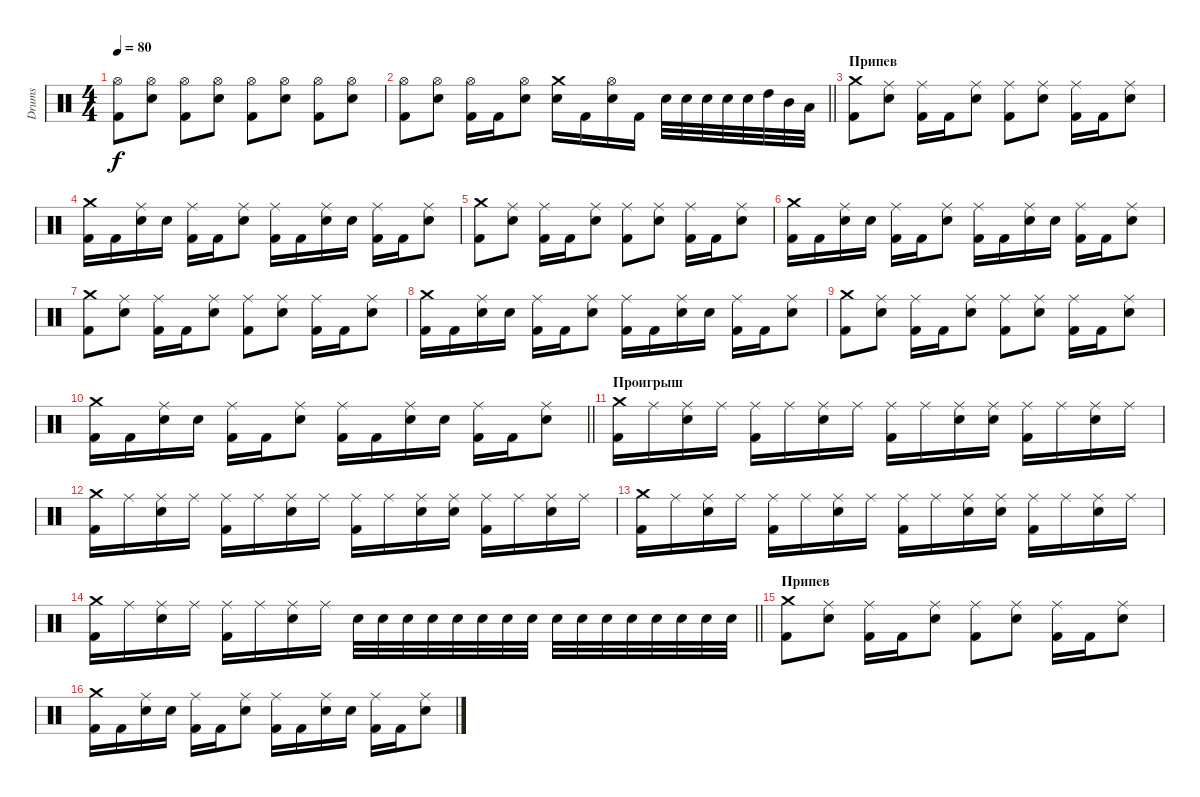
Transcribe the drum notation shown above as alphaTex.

\track ("Drums" "Drums") {instrument percussion}
\staff {score}
\articulation defaults
\ts (4 4)
\tempo 80
\clef neutral
\ks c
("Hi-Hat (open)" "Kick (hit) 2").8{dy f} ("Hi-Hat (open)" "Snare (hit) 2").8 ("Hi-Hat (open)" "Kick (hit) 2").8 ("Hi-Hat (open)" "Snare (hit) 2").8 ("Hi-Hat (open)" "Kick (hit) 2").8 ("Hi-Hat (open)" "Snare (hit) 2").8 ("Hi-Hat (open)" "Kick (hit) 2").8 ("Hi-Hat (open)" "Snare (hit) 2").8 |
\barLineRight lightlight
("Hi-Hat (open)" "Kick (hit) 2").8 ("Hi-Hat (open)" "Snare (hit) 2").8 ("Hi-Hat (open)" "Kick (hit) 2").16 "Kick (hit) 2".16 ("Hi-Hat (open)" "Snare (hit) 2").8 ("Crash medium (hit)" "Snare (hit) 2").16 "Kick (hit) 2".16 ("Hi-Hat (open)" "Snare (hit) 2").16 "Kick (hit) 2".16 "Snare (hit) 2".32 "Snare (hit) 2".32 "Snare (hit) 2".32 "Snare (hit) 2".32 "Snare (hit) 2".32 "High Tom (hit)".32 "Mid Tom (hit)".32 "Low Tom (hit)".32 |
\section ("" "Припев")
("Crash medium (hit)" "Kick (hit) 2").8 ("Ride (middle)" "Snare (hit) 2").8 ("Ride (middle)" "Kick (hit) 2").16 "Kick (hit) 2".16 ("Ride (middle)" "Snare (hit) 2").8 ("Ride (middle)" "Kick (hit) 2").8 ("Ride (middle)" "Snare (hit) 2").8 ("Ride (middle)" "Kick (hit) 2").16 "Kick (hit) 2".16 ("Ride (middle)" "Snare (hit) 2").8 |
("Crash medium (hit)" "Kick (hit) 2").16 "Kick (hit) 2".16 ("Ride (middle)" "Snare (hit) 2").16 "Snare (hit) 2".16 ("Ride (middle)" "Kick (hit) 2").16 "Kick (hit) 2".16 ("Ride (middle)" "Snare (hit) 2").8 ("Ride (middle)" "Kick (hit) 2").16 "Kick (hit) 2".16 ("Ride (middle)" "Snare (hit) 2").16 "Snare (hit) 2".16 ("Ride (middle)" "Kick (hit) 2").16 "Kick (hit) 2".16 ("Ride (middle)" "Snare (hit) 2").8 |
("Crash medium (hit)" "Kick (hit) 2").8 ("Ride (middle)" "Snare (hit) 2").8 ("Ride (middle)" "Kick (hit) 2").16 "Kick (hit) 2".16 ("Ride (middle)" "Snare (hit) 2").8 ("Ride (middle)" "Kick (hit) 2").8 ("Ride (middle)" "Snare (hit) 2").8 ("Ride (middle)" "Kick (hit) 2").16 "Kick (hit) 2".16 ("Ride (middle)" "Snare (hit) 2").8 |
("Crash medium (hit)" "Kick (hit) 2").16 "Kick (hit) 2".16 ("Ride (middle)" "Snare (hit) 2").16 "Snare (hit) 2".16 ("Ride (middle)" "Kick (hit) 2").16 "Kick (hit) 2".16 ("Ride (middle)" "Snare (hit) 2").8 ("Ride (middle)" "Kick (hit) 2").16 "Kick (hit) 2".16 ("Ride (middle)" "Snare (hit) 2").16 "Snare (hit) 2".16 ("Ride (middle)" "Kick (hit) 2").16 "Kick (hit) 2".16 ("Ride (middle)" "Snare (hit) 2").8 |
("Crash medium (hit)" "Kick (hit) 2").8 ("Ride (middle)" "Snare (hit) 2").8 ("Ride (middle)" "Kick (hit) 2").16 "Kick (hit) 2".16 ("Ride (middle)" "Snare (hit) 2").8 ("Ride (middle)" "Kick (hit) 2").8 ("Ride (middle)" "Snare (hit) 2").8 ("Ride (middle)" "Kick (hit) 2").16 "Kick (hit) 2".16 ("Ride (middle)" "Snare (hit) 2").8 |
("Crash medium (hit)" "Kick (hit) 2").16 "Kick (hit) 2".16 ("Ride (middle)" "Snare (hit) 2").16 "Snare (hit) 2".16 ("Ride (middle)" "Kick (hit) 2").16 "Kick (hit) 2".16 ("Ride (middle)" "Snare (hit) 2").8 ("Ride (middle)" "Kick (hit) 2").16 "Kick (hit) 2".16 ("Ride (middle)" "Snare (hit) 2").16 "Snare (hit) 2".16 ("Ride (middle)" "Kick (hit) 2").16 "Kick (hit) 2".16 ("Ride (middle)" "Snare (hit) 2").8 |
("Crash medium (hit)" "Kick (hit) 2").8 ("Ride (middle)" "Snare (hit) 2").8 ("Ride (middle)" "Kick (hit) 2").16 "Kick (hit) 2".16 ("Ride (middle)" "Snare (hit) 2").8 ("Ride (middle)" "Kick (hit) 2").8 ("Ride (middle)" "Snare (hit) 2").8 ("Ride (middle)" "Kick (hit) 2").16 "Kick (hit) 2".16 ("Ride (middle)" "Snare (hit) 2").8 |
\barLineRight lightlight
("Crash medium (hit)" "Kick (hit) 2").16 "Kick (hit) 2".16 ("Ride (middle)" "Snare (hit) 2").16 "Snare (hit) 2".16 ("Ride (middle)" "Kick (hit) 2").16 "Kick (hit) 2".16 ("Ride (middle)" "Snare (hit) 2").8 ("Ride (middle)" "Kick (hit) 2").16 "Kick (hit) 2".16 ("Ride (middle)" "Snare (hit) 2").16 "Snare (hit) 2".16 ("Ride (middle)" "Kick (hit) 2").16 "Kick (hit) 2".16 ("Ride (middle)" "Snare (hit) 2").8 |
\section ("" "Проигрыш")
("Crash medium (hit)" "Kick (hit) 2").16 "Ride (middle)".16 ("Ride (middle)" "Snare (hit) 2").16 "Ride (middle)".16 ("Ride (middle)" "Kick (hit) 2").16 "Ride (middle)".16 ("Ride (middle)" "Snare (hit) 2").16 "Ride (middle)".16 ("Ride (middle)" "Kick (hit) 2").16 "Ride (middle)".16 ("Ride (middle)" "Snare (hit) 2").16 ("Ride (middle)" "Snare (hit) 2").16 ("Ride (middle)" "Kick (hit) 2").16 "Ride (middle)".16 ("Ride (middle)" "Snare (hit) 2").16 "Ride (middle)".16 |
("Crash medium (hit)" "Kick (hit) 2").16 "Ride (middle)".16 ("Ride (middle)" "Snare (hit) 2").16 "Ride (middle)".16 ("Ride (middle)" "Kick (hit) 2").16 "Ride (middle)".16 ("Ride (middle)" "Snare (hit) 2").16 "Ride (middle)".16 ("Ride (middle)" "Kick (hit) 2").16 "Ride (middle)".16 ("Ride (middle)" "Snare (hit) 2").16 ("Ride (middle)" "Snare (hit) 2").16 ("Ride (middle)" "Kick (hit) 2").16 "Ride (middle)".16 ("Ride (middle)" "Snare (hit) 2").16 "Ride (middle)".16 |
("Crash medium (hit)" "Kick (hit) 2").16 "Ride (middle)".16 ("Ride (middle)" "Snare (hit) 2").16 "Ride (middle)".16 ("Ride (middle)" "Kick (hit) 2").16 "Ride (middle)".16 ("Ride (middle)" "Snare (hit) 2").16 "Ride (middle)".16 ("Ride (middle)" "Kick (hit) 2").16 "Ride (middle)".16 ("Ride (middle)" "Snare (hit) 2").16 ("Ride (middle)" "Snare (hit) 2").16 ("Ride (middle)" "Kick (hit) 2").16 "Ride (middle)".16 ("Ride (middle)" "Snare (hit) 2").16 "Ride (middle)".16 |
\barLineRight lightlight
("Crash medium (hit)" "Kick (hit) 2").16 "Ride (middle)".16 ("Ride (middle)" "Snare (hit) 2").16 "Ride (middle)".16 ("Ride (middle)" "Kick (hit) 2").16 "Ride (middle)".16 ("Ride (middle)" "Snare (hit) 2").16 "Ride (middle)".16 "Snare (hit) 2".32 "Snare (hit) 2".32 "Snare (hit) 2".32 "Snare (hit) 2".32 "Snare (hit) 2".32 "Snare (hit) 2".32 "Snare (hit) 2".32 "Snare (hit) 2".32 "Snare (hit) 2".32 "Snare (hit) 2".32 "Snare (hit) 2".32 "Snare (hit) 2".32 "Snare (hit) 2".32 "Snare (hit) 2".32 "Snare (hit) 2".32 "Snare (hit) 2".32 |
\section ("" "Припев")
("Crash medium (hit)" "Kick (hit) 2").8 ("Ride (middle)" "Snare (hit) 2").8 ("Ride (middle)" "Kick (hit) 2").16 "Kick (hit) 2".16 ("Ride (middle)" "Snare (hit) 2").8 ("Ride (middle)" "Kick (hit) 2").8 ("Ride (middle)" "Snare (hit) 2").8 ("Ride (middle)" "Kick (hit) 2").16 "Kick (hit) 2".16 ("Ride (middle)" "Snare (hit) 2").8 |
("Crash medium (hit)" "Kick (hit) 2").16 "Kick (hit) 2".16 ("Ride (middle)" "Snare (hit) 2").16 "Snare (hit) 2".16 ("Ride (middle)" "Kick (hit) 2").16 "Kick (hit) 2".16 ("Ride (middle)" "Snare (hit) 2").8 ("Ride (middle)" "Kick (hit) 2").16 "Kick (hit) 2".16 ("Ride (middle)" "Snare (hit) 2").16 "Snare (hit) 2".16 ("Ride (middle)" "Kick (hit) 2").16 "Kick (hit) 2".16 ("Ride (middle)" "Snare (hit) 2").8
